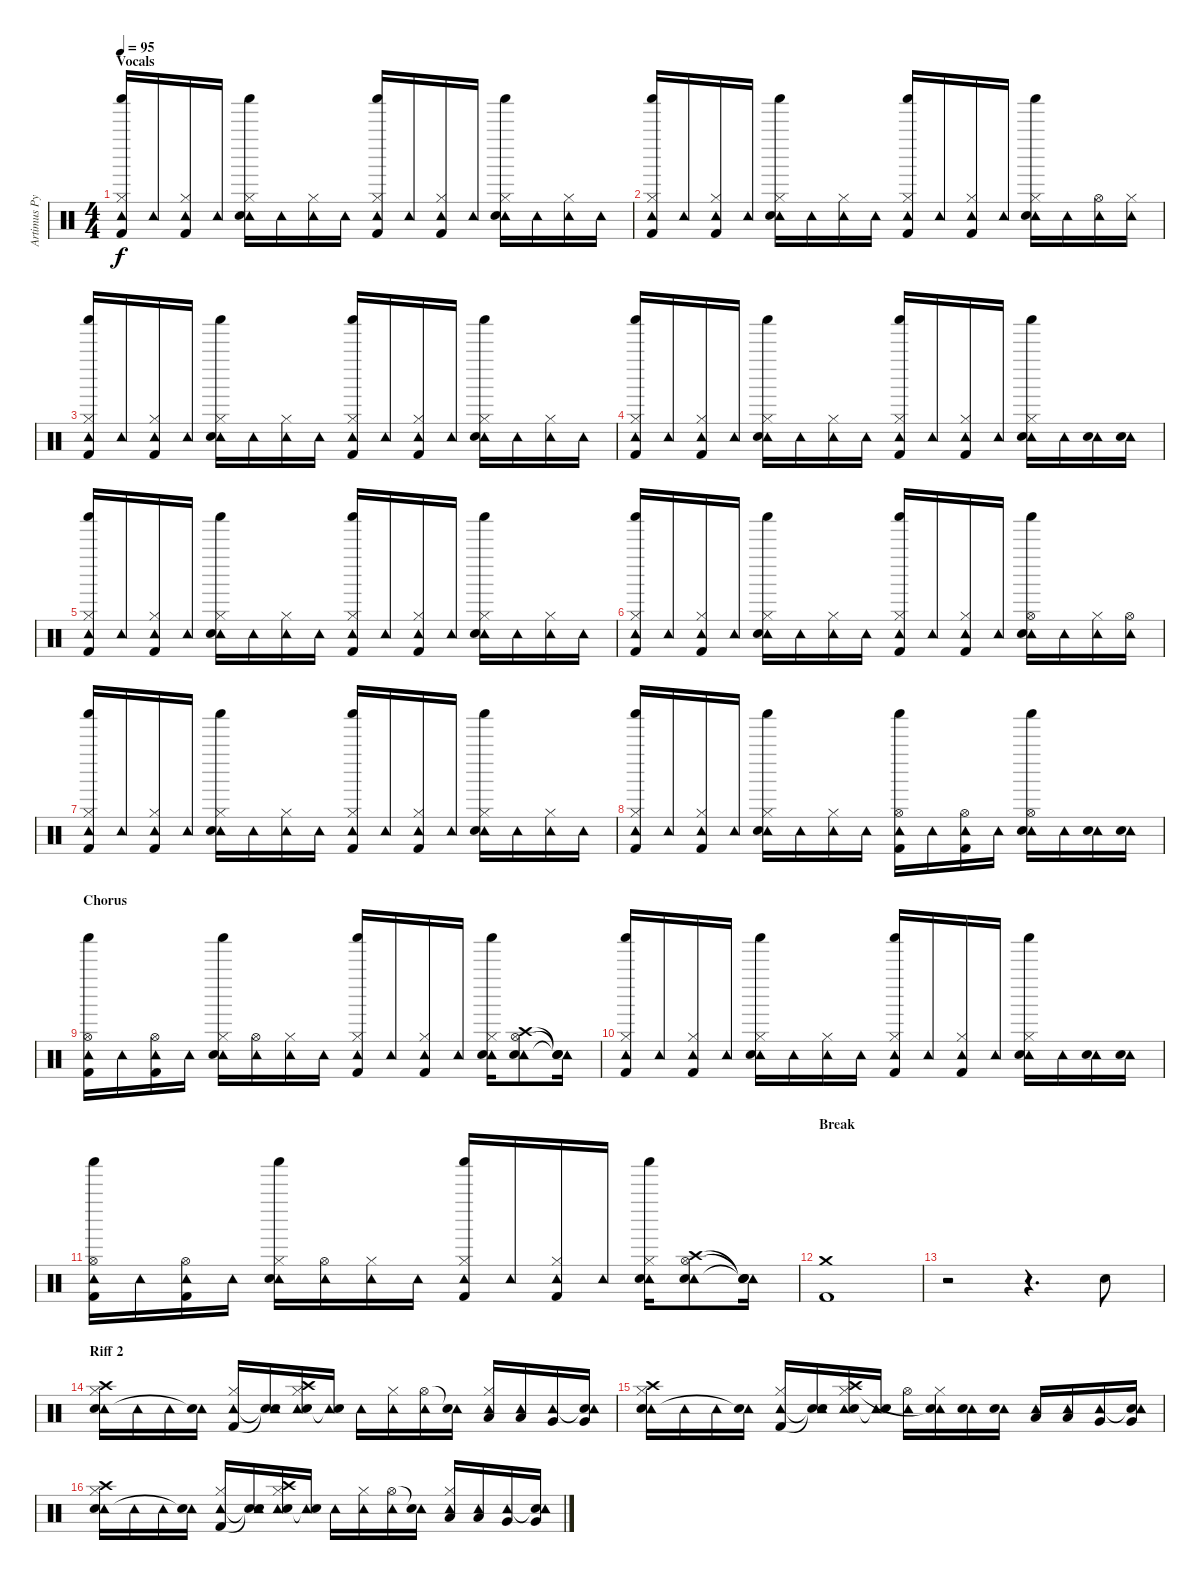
\track ("Artimus Pyle" "Artimus Py") {instrument percussion}
\staff {score}
\articulation defaults
\ts (4 4)
\section ("" "Vocals")
\tempo 95
\clef neutral
\ks c
("Tambourine (hit)" "Shaker (hit)" "Hi-Hat (closed)" "Kick (hit) 2").16{dy f} "Tambourine (hit)".16 ("Tambourine (hit)" "Hi-Hat (closed)" "Kick (hit) 2").16 "Tambourine (hit)".16 ("Tambourine (hit)" "Shaker (hit)" "Hi-Hat (closed)" "Electric Snare (hit)").16 "Tambourine (hit)".16 ("Tambourine (hit)" "Hi-Hat (closed)").16 "Tambourine (hit)".16 ("Tambourine (hit)" "Shaker (hit)" "Hi-Hat (closed)" "Kick (hit) 2").16 "Tambourine (hit)".16 ("Tambourine (hit)" "Hi-Hat (closed)" "Kick (hit) 2").16 "Tambourine (hit)".16 ("Tambourine (hit)" "Shaker (hit)" "Hi-Hat (closed)" "Electric Snare (hit)").16 "Tambourine (hit)".16 ("Tambourine (hit)" "Hi-Hat (closed)").16 "Tambourine (hit)".16 |
("Tambourine (hit)" "Shaker (hit)" "Hi-Hat (closed)" "Kick (hit) 2").16 "Tambourine (hit)".16 ("Tambourine (hit)" "Hi-Hat (closed)" "Kick (hit) 2").16 "Tambourine (hit)".16 ("Tambourine (hit)" "Shaker (hit)" "Hi-Hat (closed)" "Electric Snare (hit)").16 "Tambourine (hit)".16 ("Tambourine (hit)" "Hi-Hat (closed)").16 "Tambourine (hit)".16 ("Tambourine (hit)" "Shaker (hit)" "Hi-Hat (closed)" "Kick (hit) 2").16 "Tambourine (hit)".16 ("Tambourine (hit)" "Hi-Hat (closed)" "Kick (hit) 2").16 "Tambourine (hit)".16 ("Tambourine (hit)" "Shaker (hit)" "Hi-Hat (closed)" "Electric Snare (hit)").16 "Tambourine (hit)".16 ("Tambourine (hit)" "Hi-Hat (open)").16 ("Tambourine (hit)" "Hi-Hat (closed)").16 |
("Tambourine (hit)" "Shaker (hit)" "Hi-Hat (closed)" "Kick (hit) 2").16 "Tambourine (hit)".16 ("Tambourine (hit)" "Hi-Hat (closed)" "Kick (hit) 2").16 "Tambourine (hit)".16 ("Tambourine (hit)" "Shaker (hit)" "Hi-Hat (closed)" "Electric Snare (hit)").16 "Tambourine (hit)".16 ("Tambourine (hit)" "Hi-Hat (closed)").16 "Tambourine (hit)".16 ("Tambourine (hit)" "Shaker (hit)" "Hi-Hat (closed)" "Kick (hit) 2").16 "Tambourine (hit)".16 ("Tambourine (hit)" "Hi-Hat (closed)" "Kick (hit) 2").16 "Tambourine (hit)".16 ("Tambourine (hit)" "Shaker (hit)" "Hi-Hat (closed)" "Electric Snare (hit)").16 "Tambourine (hit)".16 ("Tambourine (hit)" "Hi-Hat (closed)").16 "Tambourine (hit)".16 |
("Tambourine (hit)" "Shaker (hit)" "Hi-Hat (closed)" "Kick (hit) 2").16 "Tambourine (hit)".16 ("Tambourine (hit)" "Hi-Hat (closed)" "Kick (hit) 2").16 "Tambourine (hit)".16 ("Tambourine (hit)" "Shaker (hit)" "Hi-Hat (closed)" "Electric Snare (hit)").16 "Tambourine (hit)".16 ("Tambourine (hit)" "Hi-Hat (closed)").16 "Tambourine (hit)".16 ("Tambourine (hit)" "Shaker (hit)" "Hi-Hat (closed)" "Kick (hit) 2").16 "Tambourine (hit)".16 ("Tambourine (hit)" "Hi-Hat (closed)" "Kick (hit) 2").16 "Tambourine (hit)".16 ("Tambourine (hit)" "Shaker (hit)" "Hi-Hat (closed)" "Electric Snare (hit)").16 "Tambourine (hit)".16 ("Tambourine (hit)" "Electric Snare (hit)").16 ("Tambourine (hit)" "Electric Snare (hit)").16 |
("Tambourine (hit)" "Shaker (hit)" "Hi-Hat (closed)" "Kick (hit) 2").16 "Tambourine (hit)".16 ("Tambourine (hit)" "Hi-Hat (closed)" "Kick (hit) 2").16 "Tambourine (hit)".16 ("Tambourine (hit)" "Shaker (hit)" "Hi-Hat (closed)" "Electric Snare (hit)").16 "Tambourine (hit)".16 ("Tambourine (hit)" "Hi-Hat (closed)").16 "Tambourine (hit)".16 ("Tambourine (hit)" "Shaker (hit)" "Hi-Hat (closed)" "Kick (hit) 2").16 "Tambourine (hit)".16 ("Tambourine (hit)" "Hi-Hat (closed)" "Kick (hit) 2").16 "Tambourine (hit)".16 ("Tambourine (hit)" "Shaker (hit)" "Hi-Hat (closed)" "Electric Snare (hit)").16 "Tambourine (hit)".16 ("Tambourine (hit)" "Hi-Hat (closed)").16 "Tambourine (hit)".16 |
("Tambourine (hit)" "Shaker (hit)" "Hi-Hat (closed)" "Kick (hit) 2").16 "Tambourine (hit)".16 ("Tambourine (hit)" "Hi-Hat (closed)" "Kick (hit) 2").16 "Tambourine (hit)".16 ("Tambourine (hit)" "Shaker (hit)" "Hi-Hat (closed)" "Electric Snare (hit)").16 "Tambourine (hit)".16 ("Tambourine (hit)" "Hi-Hat (closed)").16 "Tambourine (hit)".16 ("Tambourine (hit)" "Shaker (hit)" "Hi-Hat (closed)" "Kick (hit) 2").16 "Tambourine (hit)".16 ("Tambourine (hit)" "Hi-Hat (closed)" "Kick (hit) 2").16 "Tambourine (hit)".16 ("Tambourine (hit)" "Shaker (hit)" "Hi-Hat (open)" "Electric Snare (hit)").16 "Tambourine (hit)".16 ("Tambourine (hit)" "Hi-Hat (closed)").16 ("Tambourine (hit)" "Hi-Hat (open)").16 |
("Tambourine (hit)" "Shaker (hit)" "Hi-Hat (closed)" "Kick (hit) 2").16 "Tambourine (hit)".16 ("Tambourine (hit)" "Hi-Hat (closed)" "Kick (hit) 2").16 "Tambourine (hit)".16 ("Tambourine (hit)" "Shaker (hit)" "Hi-Hat (closed)" "Electric Snare (hit)").16 "Tambourine (hit)".16 ("Tambourine (hit)" "Hi-Hat (closed)").16 "Tambourine (hit)".16 ("Tambourine (hit)" "Shaker (hit)" "Hi-Hat (closed)" "Kick (hit) 2").16 "Tambourine (hit)".16 ("Tambourine (hit)" "Hi-Hat (closed)" "Kick (hit) 2").16 "Tambourine (hit)".16 ("Tambourine (hit)" "Shaker (hit)" "Hi-Hat (closed)" "Electric Snare (hit)").16 "Tambourine (hit)".16 ("Tambourine (hit)" "Hi-Hat (closed)").16 "Tambourine (hit)".16 |
("Tambourine (hit)" "Shaker (hit)" "Hi-Hat (closed)" "Kick (hit) 2").16 "Tambourine (hit)".16 ("Tambourine (hit)" "Hi-Hat (closed)" "Kick (hit) 2").16 "Tambourine (hit)".16 ("Tambourine (hit)" "Shaker (hit)" "Hi-Hat (closed)" "Electric Snare (hit)").16 "Tambourine (hit)".16 ("Tambourine (hit)" "Hi-Hat (closed)").16 "Tambourine (hit)".16 ("Tambourine (hit)" "Shaker (hit)" "Hi-Hat (open)" "Kick (hit) 2").16 "Tambourine (hit)".16 ("Tambourine (hit)" "Hi-Hat (open)" "Kick (hit) 2").16 "Tambourine (hit)".16 ("Tambourine (hit)" "Shaker (hit)" "Hi-Hat (open)" "Electric Snare (hit)").16 "Tambourine (hit)".16 ("Tambourine (hit)" "Electric Snare (hit)").16 ("Tambourine (hit)" "Electric Snare (hit)").16 |
\section ("" "Chorus")
("Tambourine (hit)" "Shaker (hit)" "Hi-Hat (open)" "Kick (hit) 2").16 "Tambourine (hit)".16 ("Tambourine (hit)" "Hi-Hat (open)" "Kick (hit) 2").16 "Tambourine (hit)".16 ("Tambourine (hit)" "Shaker (hit)" "Hi-Hat (closed)" "Electric Snare (hit)").16 ("Tambourine (hit)" "Hi-Hat (open)").16 ("Tambourine (hit)" "Hi-Hat (closed)").16 "Tambourine (hit)".16 ("Tambourine (hit)" "Shaker (hit)" "Hi-Hat (closed)" "Kick (hit) 2").16 "Tambourine (hit)".16 ("Tambourine (hit)" "Hi-Hat (closed)" "Kick (hit) 2").16 "Tambourine (hit)".16 ("Tambourine (hit)" "Shaker (hit)" "Hi-Hat (closed)" "Electric Snare (hit)").16 ("Tambourine (hit)" "Crash high (hit)" "Hi-Hat (open)" "Electric Snare (hit)").8 ("Tambourine (hit)" "Snare (hit)"{t} "Snare (hit)"{t} "Snare (hit)"{t}).16 |
("Tambourine (hit)" "Shaker (hit)" "Hi-Hat (closed)" "Kick (hit) 2").16 "Tambourine (hit)".16 ("Tambourine (hit)" "Hi-Hat (closed)" "Kick (hit) 2").16 "Tambourine (hit)".16 ("Tambourine (hit)" "Shaker (hit)" "Hi-Hat (closed)" "Electric Snare (hit)").16 "Tambourine (hit)".16 ("Tambourine (hit)" "Hi-Hat (closed)").16 "Tambourine (hit)".16 ("Tambourine (hit)" "Shaker (hit)" "Hi-Hat (closed)" "Kick (hit) 2").16 "Tambourine (hit)".16 ("Tambourine (hit)" "Hi-Hat (closed)" "Kick (hit) 2").16 "Tambourine (hit)".16 ("Tambourine (hit)" "Shaker (hit)" "Hi-Hat (closed)" "Electric Snare (hit)").16 "Tambourine (hit)".16 ("Tambourine (hit)" "Electric Snare (hit)").16 ("Tambourine (hit)" "Electric Snare (hit)").16 |
("Tambourine (hit)" "Shaker (hit)" "Hi-Hat (open)" "Kick (hit) 2").16 "Tambourine (hit)".16 ("Tambourine (hit)" "Hi-Hat (open)" "Kick (hit) 2").16 "Tambourine (hit)".16 ("Tambourine (hit)" "Shaker (hit)" "Hi-Hat (closed)" "Electric Snare (hit)").16 ("Tambourine (hit)" "Hi-Hat (open)").16 ("Tambourine (hit)" "Hi-Hat (closed)").16 "Tambourine (hit)".16 ("Tambourine (hit)" "Shaker (hit)" "Hi-Hat (closed)" "Kick (hit) 2").16 "Tambourine (hit)".16 ("Tambourine (hit)" "Hi-Hat (closed)" "Kick (hit) 2").16 "Tambourine (hit)".16 ("Tambourine (hit)" "Shaker (hit)" "Hi-Hat (closed)" "Electric Snare (hit)").16 ("Tambourine (hit)" "Crash high (hit)" "Hi-Hat (open)" "Electric Snare (hit)").8 ("Tambourine (hit)" "Snare (hit)"{t} "Snare (hit)"{t} "Snare (hit)"{t}).16 |
\section ("" "Break")
("Crash medium (hit)" "Kick (hit) 2").1 |
r.2 r.4{d} "Electric Snare (hit)".8 |
\section ("" "Riff 2")
("Crash high (hit)" "Tambourine (hit)" "Hi-Hat (closed)" "Snare (hit) 2").16 "Tambourine (hit)".16 "Tambourine (hit)".16 ("Tambourine (hit)" "Snare (hit)"{t}).16 ("Tambourine (hit)" "Hi-Hat (closed)" "Kick (hit) 2").16 ("Snare (hit)"{t} "Tambourine (hit)" "Snare (hit)"{t}).16 ("Crash high (hit)" "Tambourine (hit)" "Hi-Hat (closed)" "Snare (hit) 2").16 ("Tambourine (hit)" "Snare (hit)"{t}).16 "Tambourine (hit)".16 ("Tambourine (hit)" "Hi-Hat (closed)").16 ("Tambourine (hit)" "Hi-Hat (open)").16 ("Tambourine (hit)" "Snare (hit)"{t}).16 ("Tambourine (hit)" "Hi-Hat (closed)" "Low Tom (hit)").16 ("Tambourine (hit)" "Low Tom (hit)").16 ("Tambourine (hit)" "Very Low Tom (hit)").16 ("Snare (hit)"{t} "Tambourine (hit)" "Very Low Tom (hit)").16 |
("Crash high (hit)" "Tambourine (hit)" "Hi-Hat (closed)" "Snare (hit) 2").16 "Tambourine (hit)".16 "Tambourine (hit)".16 ("Tambourine (hit)" "Snare (hit)"{t}).16 ("Tambourine (hit)" "Hi-Hat (closed)" "Kick (hit) 2").16 ("Snare (hit)"{t} "Tambourine (hit)" "Snare (hit)"{t}).16 ("Crash high (hit)" "Tambourine (hit)" "Hi-Hat (closed)" "Snare (hit) 2").16 ("Tambourine (hit)" "Snare (hit)"{t}).16 ("Tambourine (hit)" "Hi-Hat (open)").16 ("Tambourine (hit)" "Hi-Hat (closed)" "Snare (hit)"{t}).16 ("Tambourine (hit)" "Electric Snare (hit)").16 ("Tambourine (hit)" "Electric Snare (hit)").16 ("Tambourine (hit)" "Low Tom (hit)").16 ("Tambourine (hit)" "Low Tom (hit)").16 ("Tambourine (hit)" "Very Low Tom (hit)").16 ("Snare (hit)"{t} "Tambourine (hit)" "Very Low Tom (hit)").16 |
("Crash high (hit)" "Tambourine (hit)" "Hi-Hat (closed)" "Snare (hit) 2").16 "Tambourine (hit)".16 "Tambourine (hit)".16 ("Tambourine (hit)" "Snare (hit)"{t}).16 ("Tambourine (hit)" "Hi-Hat (closed)" "Kick (hit) 2").16 ("Snare (hit)"{t} "Tambourine (hit)" "Snare (hit)"{t}).16 ("Crash high (hit)" "Tambourine (hit)" "Hi-Hat (closed)" "Snare (hit) 2").16 ("Tambourine (hit)" "Snare (hit)"{t}).16 "Tambourine (hit)".16 ("Tambourine (hit)" "Hi-Hat (closed)").16 ("Tambourine (hit)" "Hi-Hat (open)").16 ("Tambourine (hit)" "Snare (hit)"{t}).16 ("Tambourine (hit)" "Hi-Hat (closed)" "Low Tom (hit)").16 ("Tambourine (hit)" "Low Tom (hit)").16 ("Tambourine (hit)" "Very Low Tom (hit)").16 ("Snare (hit)"{t} "Tambourine (hit)" "Very Low Tom (hit)").16
